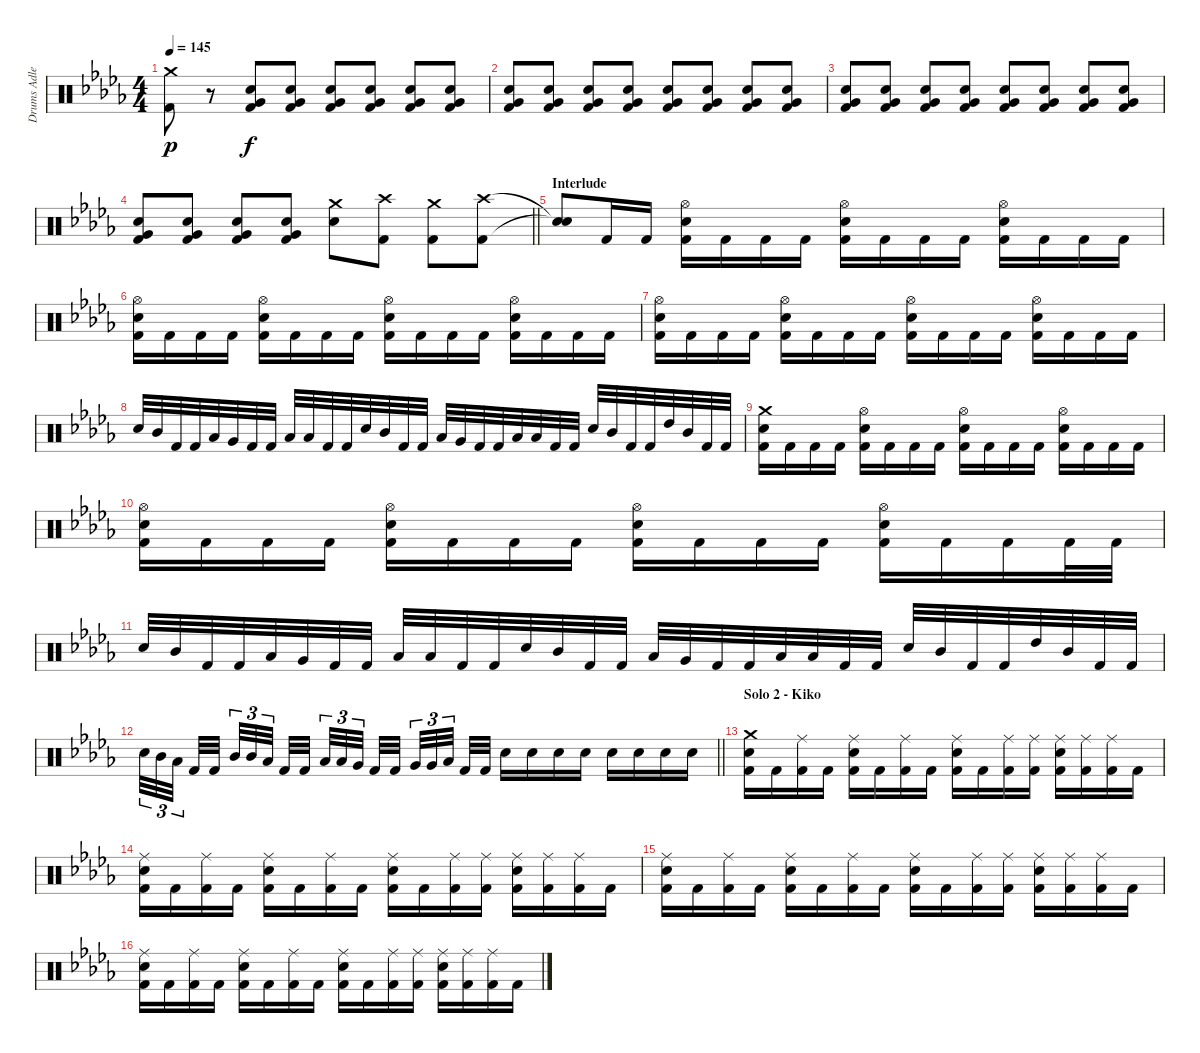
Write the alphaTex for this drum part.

\track ("Drums Adler" "Drums Adle") {instrument percussion}
\staff {score}
\articulation defaults
\ts (4 4)
\section ("" "")
\tempo 145
\clef neutral
\ks db
("Crash medium (hit)" "Kick (hit) 2").8{dy p} r.8 ("Very Low Tom (hit)" "Snare (hit) 2" "Kick (hit) 2").8{dy f} ("Very Low Tom (hit)" "Snare (hit) 2" "Kick (hit) 2").8 ("Very Low Tom (hit)" "Snare (hit) 2" "Kick (hit) 2").8 ("Very Low Tom (hit)" "Snare (hit) 2" "Kick (hit) 2").8 ("Very Low Tom (hit)" "Snare (hit) 2" "Kick (hit) 2").8 ("Very Low Tom (hit)" "Snare (hit) 2" "Kick (hit) 2").8 |
("Very Low Tom (hit)" "Snare (hit) 2" "Kick (hit) 2").8 ("Very Low Tom (hit)" "Snare (hit) 2" "Kick (hit) 2").8 ("Very Low Tom (hit)" "Snare (hit) 2" "Kick (hit) 2").8 ("Very Low Tom (hit)" "Snare (hit) 2" "Kick (hit) 2").8 ("Very Low Tom (hit)" "Snare (hit) 2" "Kick (hit) 2").8 ("Very Low Tom (hit)" "Snare (hit) 2" "Kick (hit) 2").8 ("Very Low Tom (hit)" "Snare (hit) 2" "Kick (hit) 2").8 ("Very Low Tom (hit)" "Snare (hit) 2" "Kick (hit) 2").8 |
("Very Low Tom (hit)" "Snare (hit) 2" "Kick (hit) 2").8 ("Very Low Tom (hit)" "Snare (hit) 2" "Kick (hit) 2").8 ("Very Low Tom (hit)" "Snare (hit) 2" "Kick (hit) 2").8 ("Very Low Tom (hit)" "Snare (hit) 2" "Kick (hit) 2").8 ("Very Low Tom (hit)" "Snare (hit) 2" "Kick (hit) 2").8 ("Very Low Tom (hit)" "Snare (hit) 2" "Kick (hit) 2").8 ("Very Low Tom (hit)" "Snare (hit) 2" "Kick (hit) 2").8 ("Very Low Tom (hit)" "Snare (hit) 2" "Kick (hit) 2").8 |
\barLineRight lightlight
("Very Low Tom (hit)" "Snare (hit) 2" "Kick (hit) 2").8 ("Very Low Tom (hit)" "Snare (hit) 2" "Kick (hit) 2").8 ("Very Low Tom (hit)" "Snare (hit) 2" "Kick (hit) 2").8 ("Very Low Tom (hit)" "Snare (hit) 2" "Kick (hit) 2").8 ("Crash medium (hit)" "Snare (hit) 2").8 ("Crash high (hit)" "Kick (hit) 2").8 ("Crash medium (hit)" "Kick (hit) 2").8 ("Crash high (hit)" "Kick (hit) 2").8 |
\section ("" "Interlude")
("Snare (hit)"{t} "Snare (hit)"{t}).8 "Kick (hit) 2".16 "Kick (hit) 2".16 ("Hi-Hat (open)" "Snare (hit) 2" "Kick (hit) 2").16 "Kick (hit) 2".16 "Kick (hit) 2".16 "Kick (hit) 2".16 ("Hi-Hat (open)" "Snare (hit) 2" "Kick (hit) 2").16 "Kick (hit) 2".16 "Kick (hit) 2".16 "Kick (hit) 2".16 ("Hi-Hat (open)" "Snare (hit) 2" "Kick (hit) 2").16 "Kick (hit) 2".16 "Kick (hit) 2".16 "Kick (hit) 2".16 |
("Hi-Hat (open)" "Snare (hit) 2" "Kick (hit) 2").16 "Kick (hit) 2".16 "Kick (hit) 2".16 "Kick (hit) 2".16 ("Hi-Hat (open)" "Snare (hit) 2" "Kick (hit) 2").16 "Kick (hit) 2".16 "Kick (hit) 2".16 "Kick (hit) 2".16 ("Hi-Hat (open)" "Snare (hit) 2" "Kick (hit) 2").16 "Kick (hit) 2".16 "Kick (hit) 2".16 "Kick (hit) 2".16 ("Hi-Hat (open)" "Snare (hit) 2" "Kick (hit) 2").16 "Kick (hit) 2".16 "Kick (hit) 2".16 "Kick (hit) 2".16 |
("Hi-Hat (open)" "Snare (hit) 2" "Kick (hit) 2").16 "Kick (hit) 2".16 "Kick (hit) 2".16 "Kick (hit) 2".16 ("Hi-Hat (open)" "Snare (hit) 2" "Kick (hit) 2").16 "Kick (hit) 2".16 "Kick (hit) 2".16 "Kick (hit) 2".16 ("Hi-Hat (open)" "Snare (hit) 2" "Kick (hit) 2").16 "Kick (hit) 2".16 "Kick (hit) 2".16 "Kick (hit) 2".16 ("Hi-Hat (open)" "Snare (hit) 2" "Kick (hit) 2").16 "Kick (hit) 2".16 "Kick (hit) 2".16 "Kick (hit) 2".16 |
"Snare (hit) 2".32 "Mid Tom (hit)".32 "Kick (hit) 2".32 "Kick (hit) 2".32 "Low Tom (hit)".32 "Very Low Tom (hit)".32 "Kick (hit) 2".32 "Kick (hit) 2".32 "Low Floor Tom (hit)".32 "Low Floor Tom (hit)".32 "Kick (hit) 2".32 "Kick (hit) 2".32 "Snare (hit) 2".32 "Mid Tom (hit)".32 "Kick (hit) 2".32 "Kick (hit) 2".32 "Low Tom (hit)".32 "Very Low Tom (hit)".32 "Kick (hit) 2".32 "Kick (hit) 2".32 "Low Floor Tom (hit)".32 "Low Floor Tom (hit)".32 "Kick (hit) 2".32 "Kick (hit) 2".32 "Snare (hit) 2".32 "Mid Tom (hit)".32 "Kick (hit) 2".32 "Kick (hit) 2".32 "High Tom (hit)".32 "Mid Tom (hit)".32 "Kick (hit) 2".32 "Kick (hit) 2".32 |
("Crash medium (hit)" "Snare (hit) 2" "Kick (hit) 2").16 "Kick (hit) 2".16 "Kick (hit) 2".16 "Kick (hit) 2".16 ("Hi-Hat (open)" "Snare (hit) 2" "Kick (hit) 2").16 "Kick (hit) 2".16 "Kick (hit) 2".16 "Kick (hit) 2".16 ("Hi-Hat (open)" "Snare (hit) 2" "Kick (hit) 2").16 "Kick (hit) 2".16 "Kick (hit) 2".16 "Kick (hit) 2".16 ("Hi-Hat (open)" "Snare (hit) 2" "Kick (hit) 2").16 "Kick (hit) 2".16 "Kick (hit) 2".16 "Kick (hit) 2".16 |
("Hi-Hat (open)" "Snare (hit) 2" "Kick (hit) 2").16 "Kick (hit) 2".16 "Kick (hit) 2".16 "Kick (hit) 2".16 ("Hi-Hat (open)" "Snare (hit) 2" "Kick (hit) 2").16 "Kick (hit) 2".16 "Kick (hit) 2".16 "Kick (hit) 2".16 ("Hi-Hat (open)" "Snare (hit) 2" "Kick (hit) 2").16 "Kick (hit) 2".16 "Kick (hit) 2".16 "Kick (hit) 2".16 ("Hi-Hat (open)" "Snare (hit) 2" "Kick (hit) 2").16 "Kick (hit) 2".16 "Kick (hit) 2".16 "Kick (hit) 2".32 "Kick (hit) 2".32 |
"Snare (hit) 2".32 "Mid Tom (hit)".32 "Kick (hit) 2".32 "Kick (hit) 2".32 "Low Tom (hit)".32 "Very Low Tom (hit)".32 "Kick (hit) 2".32 "Kick (hit) 2".32 "Low Floor Tom (hit)".32 "Low Floor Tom (hit)".32 "Kick (hit) 2".32 "Kick (hit) 2".32 "Snare (hit) 2".32 "Mid Tom (hit)".32 "Kick (hit) 2".32 "Kick (hit) 2".32 "Low Tom (hit)".32 "Very Low Tom (hit)".32 "Kick (hit) 2".32 "Kick (hit) 2".32 "Low Floor Tom (hit)".32 "Low Floor Tom (hit)".32 "Kick (hit) 2".32 "Kick (hit) 2".32 "Snare (hit) 2".32 "Mid Tom (hit)".32 "Kick (hit) 2".32 "Kick (hit) 2".32 "High Tom (hit)".32 "Mid Tom (hit)".32 "Kick (hit) 2".32 "Kick (hit) 2".32 |
\barLineRight lightlight "Snare (hit) 2".32{tu (3 2)} "Mid Tom (hit)".32{tu (3 2)} "Low Tom (hit)".32{tu (3 2) beam splitsecondary} "Kick (hit) 2".32 "Kick (hit) 2".32{beam splitsecondary} "Mid Tom (hit)".32{tu (3 2)} "Mid Tom (hit)".32{tu (3 2)} "Low Tom (hit)".32{tu (3 2) beam splitsecondary} "Kick (hit) 2".32 "Kick (hit) 2".32 "Low Tom (hit)".32{tu (3 2)} "Low Tom (hit)".32{tu (3 2)} "Very Low Tom (hit)".32{tu (3 2) beam splitsecondary} "Kick (hit) 2".32 "Kick (hit) 2".32{beam splitsecondary} "Very Low Tom (hit)".32{tu (3 2)} "Very Low Tom (hit)".32{tu (3 2)} "Low Floor Tom (hit)".32{tu (3 2) beam splitsecondary} "Kick (hit) 2".32 "Kick (hit) 2".32 "Snare (hit) 2".16 "Snare (hit) 2".16 "Snare (hit) 2".16 "Snare (hit) 2".16 "Snare (hit) 2".16 "Snare (hit) 2".16 "Snare (hit) 2".16 "Snare (hit) 2".16
|
\section ("" "Solo 2 - Kiko")
("Crash medium (hit)" "Snare (hit) 2" "Kick (hit) 2").16 "Kick (hit) 2".16 ("Ride (middle)" "Kick (hit) 2").16 "Kick (hit) 2".16 ("Ride (middle)" "Snare (hit) 2" "Kick (hit) 2").16 "Kick (hit) 2".16 ("Ride (middle)" "Kick (hit) 2").16 "Kick (hit) 2".16 ("Ride (middle)" "Snare (hit) 2" "Kick (hit) 2").16 "Kick (hit) 2".16 ("Ride (middle)" "Kick (hit) 2").16 ("Ride (middle)" "Kick (hit) 2").16 ("Ride (middle)" "Snare (hit) 2" "Kick (hit) 2").16 ("Ride (middle)" "Kick (hit) 2").16 ("Ride (middle)" "Kick (hit) 2").16 "Kick (hit) 2".16 |
("Ride (middle)" "Snare (hit) 2" "Kick (hit) 2").16 "Kick (hit) 2".16 ("Ride (middle)" "Kick (hit) 2").16 "Kick (hit) 2".16 ("Ride (middle)" "Snare (hit) 2" "Kick (hit) 2").16 "Kick (hit) 2".16 ("Ride (middle)" "Kick (hit) 2").16 "Kick (hit) 2".16 ("Ride (middle)" "Snare (hit) 2" "Kick (hit) 2").16 "Kick (hit) 2".16 ("Ride (middle)" "Kick (hit) 2").16 ("Ride (middle)" "Kick (hit) 2").16 ("Ride (middle)" "Snare (hit) 2" "Kick (hit) 2").16 ("Ride (middle)" "Kick (hit) 2").16 ("Ride (middle)" "Kick (hit) 2").16 "Kick (hit) 2".16 |
("Ride (middle)" "Snare (hit) 2" "Kick (hit) 2").16 "Kick (hit) 2".16 ("Ride (middle)" "Kick (hit) 2").16 "Kick (hit) 2".16 ("Ride (middle)" "Snare (hit) 2" "Kick (hit) 2").16 "Kick (hit) 2".16 ("Ride (middle)" "Kick (hit) 2").16 "Kick (hit) 2".16 ("Ride (middle)" "Snare (hit) 2" "Kick (hit) 2").16 "Kick (hit) 2".16 ("Ride (middle)" "Kick (hit) 2").16 ("Ride (middle)" "Kick (hit) 2").16 ("Ride (middle)" "Snare (hit) 2" "Kick (hit) 2").16 ("Ride (middle)" "Kick (hit) 2").16 ("Ride (middle)" "Kick (hit) 2").16 "Kick (hit) 2".16 |
("Ride (middle)" "Snare (hit) 2" "Kick (hit) 2").16 "Kick (hit) 2".16 ("Ride (middle)" "Kick (hit) 2").16 "Kick (hit) 2".16 ("Ride (middle)" "Snare (hit) 2" "Kick (hit) 2").16 "Kick (hit) 2".16 ("Ride (middle)" "Kick (hit) 2").16 "Kick (hit) 2".16 ("Ride (middle)" "Snare (hit) 2" "Kick (hit) 2").16 "Kick (hit) 2".16 ("Ride (middle)" "Kick (hit) 2").16 ("Ride (middle)" "Kick (hit) 2").16 ("Ride (middle)" "Snare (hit) 2" "Kick (hit) 2").16 ("Ride (middle)" "Kick (hit) 2").16 ("Ride (middle)" "Kick (hit) 2").16 "Kick (hit) 2".16
